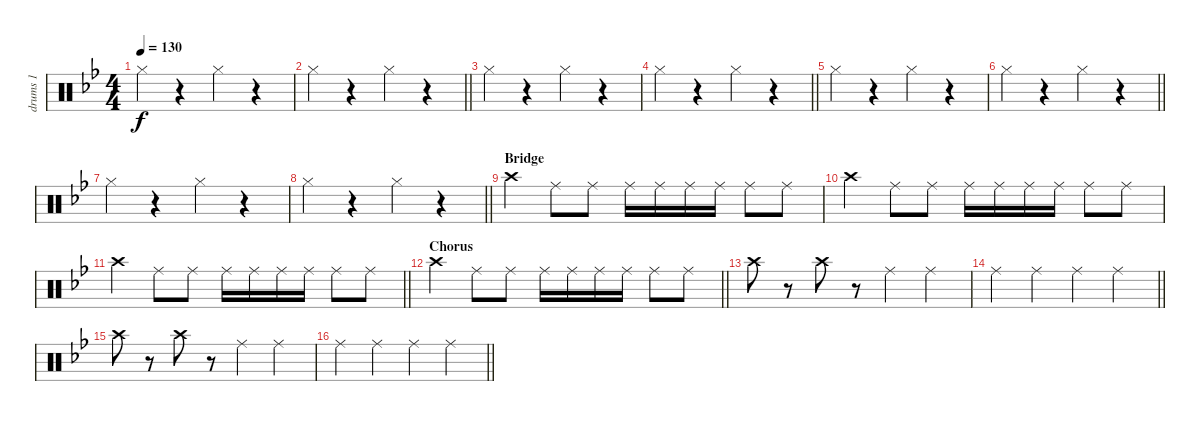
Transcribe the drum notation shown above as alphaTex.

\track ("drums 1" "drums 1") {instrument percussion}
\staff {score}
\articulation defaults
\ts (4 4)
\tempo 130
\clef neutral
\ks bb "Hi-Hat (closed)".4{dy f}
r.4 "Hi-Hat (closed)".4 r.4 |
\barLineRight lightlight "Hi-Hat (closed)".4
r.4 "Hi-Hat (closed)".4 r.4 |
"Hi-Hat (closed)".4 r.4 "Hi-Hat (closed)".4 r.4 |
\barLineRight lightlight "Hi-Hat (closed)".4
r.4 "Hi-Hat (closed)".4 r.4 |
"Hi-Hat (closed)".4 r.4 "Hi-Hat (closed)".4 r.4 |
\barLineRight lightlight "Hi-Hat (closed)".4
r.4 "Hi-Hat (closed)".4 r.4 |
"Hi-Hat (closed)".4 r.4 "Hi-Hat (closed)".4 r.4 |
\barLineRight lightlight "Hi-Hat (closed)".4
r.4 "Hi-Hat (closed)".4 r.4 |
\section ("" "Bridge")
"Crash high (hit)".4 "Ride (middle)".8 "Ride (middle)".8 "Ride (middle)".16 "Ride (middle)".16 "Ride (middle)".16 "Ride (middle)".16 "Ride (middle)".8 "Ride (middle)".8 |
"Crash high (hit)".4 "Ride (middle)".8 "Ride (middle)".8 "Ride (middle)".16 "Ride (middle)".16 "Ride (middle)".16 "Ride (middle)".16 "Ride (middle)".8 "Ride (middle)".8 |
\barLineRight lightlight "Crash high (hit)".4 "Ride (middle)".8 "Ride (middle)".8 "Ride (middle)".16 "Ride (middle)".16 "Ride (middle)".16 "Ride (middle)".16 "Ride (middle)".8 "Ride (middle)".8
|
\section ("" "Chorus")
\barLineRight lightlight "Crash high (hit)".4 "Ride (middle)".8 "Ride (middle)".8 "Ride (middle)".16 "Ride (middle)".16 "Ride (middle)".16 "Ride (middle)".16 "Ride (middle)".8 "Ride (middle)".8
|
"Crash high (hit)".8 r.8 "Crash high (hit)".8 r.8 "Ride (middle)".4 "Ride (middle)".4 |
\barLineRight lightlight "Ride (middle)".4 "Ride (middle)".4 "Ride (middle)".4 "Ride (middle)".4
|
"Crash high (hit)".8 r.8 "Crash high (hit)".8 r.8 "Ride (middle)".4 "Ride (middle)".4 |
\barLineRight lightlight "Ride (middle)".4 "Ride (middle)".4 "Ride (middle)".4 "Ride (middle)".4
